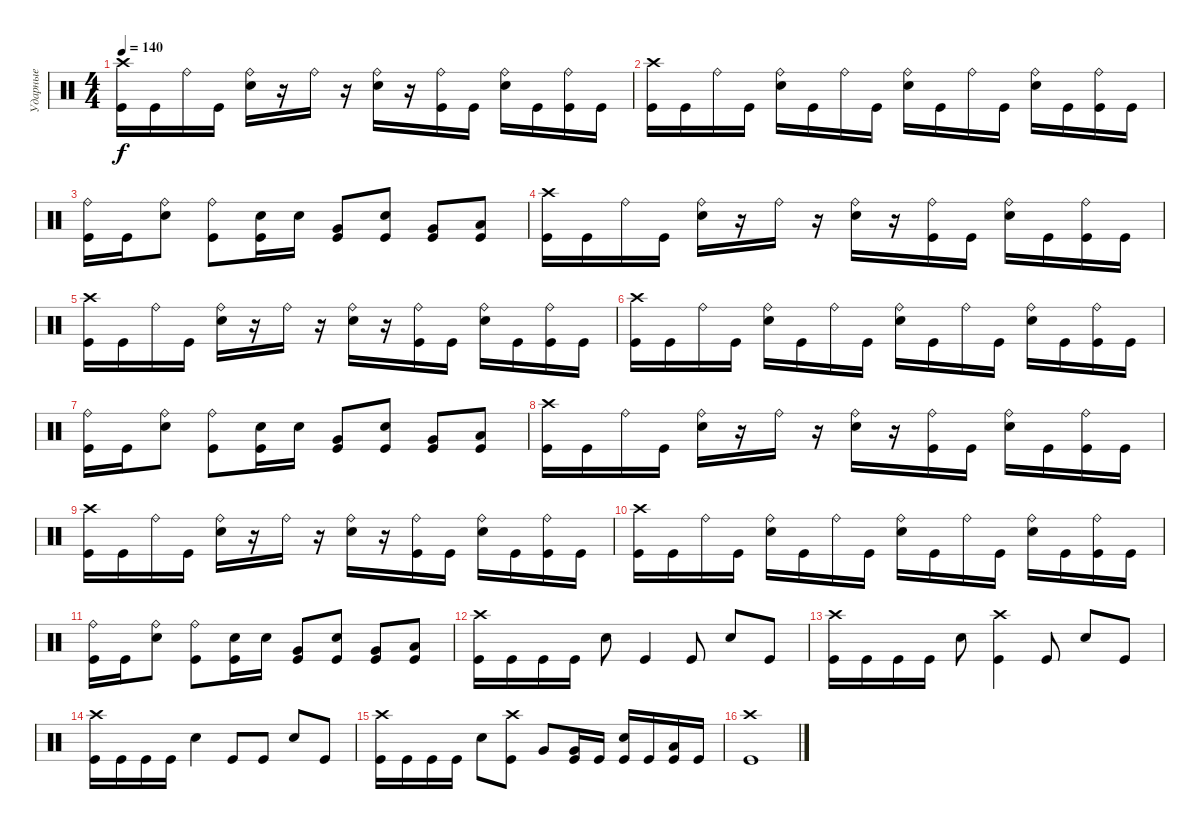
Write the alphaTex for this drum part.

\track ("Ударные" "Ударные") {instrument percussion}
\staff {score}
\articulation defaults
\ts (4 4)
\tempo 140
\clef neutral
\ks c
("Crash high (hit)" "Kick (hit)").16{dy f} "Kick (hit)".16 "Ride (bell)".16 "Kick (hit)".16 ("Ride (bell)" "Electric Snare (hit)").16 r.16 "Ride (bell)".16 r.16 ("Ride (bell)" "Electric Snare (hit)").16 r.16 ("Ride (bell)" "Kick (hit)").16 "Kick (hit)".16 ("Ride (bell)" "Electric Snare (hit)").16 "Kick (hit)".16 ("Ride (bell)" "Kick (hit)").16 "Kick (hit)".16 |
("Crash high (hit)" "Kick (hit)").16 "Kick (hit)".16 "Ride (bell)".16 "Kick (hit)".16 ("Ride (bell)" "Electric Snare (hit)").16 "Kick (hit)".16 "Ride (bell)".16 "Kick (hit)".16 ("Ride (bell)" "Electric Snare (hit)").16 "Kick (hit)".16 "Ride (bell)".16 "Kick (hit)".16 ("Ride (bell)" "Electric Snare (hit)").16 "Kick (hit)".16 ("Ride (bell)" "Kick (hit)").16 "Kick (hit)".16 |
("Ride (bell)" "Kick (hit)").16 "Kick (hit)".16 ("Ride (bell)" "Electric Snare (hit)").8 ("Ride (bell)" "Kick (hit)").8 ("Electric Snare (hit)" "Kick (hit)").16 "Electric Snare (hit)".16 ("Very Low Tom (hit)" "Kick (hit)").8 ("Electric Snare (hit)" "Kick (hit)").8 ("Very Low Tom (hit)" "Kick (hit)").8 ("Low Tom (hit)" "Kick (hit)").8 |
("Crash high (hit)" "Kick (hit)").16 "Kick (hit)".16 "Ride (bell)".16 "Kick (hit)".16 ("Ride (bell)" "Electric Snare (hit)").16 r.16 "Ride (bell)".16 r.16 ("Ride (bell)" "Electric Snare (hit)").16 r.16 ("Ride (bell)" "Kick (hit)").16 "Kick (hit)".16 ("Ride (bell)" "Electric Snare (hit)").16 "Kick (hit)".16 ("Ride (bell)" "Kick (hit)").16 "Kick (hit)".16 |
("Crash high (hit)" "Kick (hit)").16 "Kick (hit)".16 "Ride (bell)".16 "Kick (hit)".16 ("Ride (bell)" "Electric Snare (hit)").16 r.16 "Ride (bell)".16 r.16 ("Ride (bell)" "Electric Snare (hit)").16 r.16 ("Ride (bell)" "Kick (hit)").16 "Kick (hit)".16 ("Ride (bell)" "Electric Snare (hit)").16 "Kick (hit)".16 ("Ride (bell)" "Kick (hit)").16 "Kick (hit)".16 |
("Crash high (hit)" "Kick (hit)").16 "Kick (hit)".16 "Ride (bell)".16 "Kick (hit)".16 ("Ride (bell)" "Electric Snare (hit)").16 "Kick (hit)".16 "Ride (bell)".16 "Kick (hit)".16 ("Ride (bell)" "Electric Snare (hit)").16 "Kick (hit)".16 "Ride (bell)".16 "Kick (hit)".16 ("Ride (bell)" "Electric Snare (hit)").16 "Kick (hit)".16 ("Ride (bell)" "Kick (hit)").16 "Kick (hit)".16 |
("Ride (bell)" "Kick (hit)").16 "Kick (hit)".16 ("Ride (bell)" "Electric Snare (hit)").8 ("Ride (bell)" "Kick (hit)").8 ("Electric Snare (hit)" "Kick (hit)").16 "Electric Snare (hit)".16 ("Very Low Tom (hit)" "Kick (hit)").8 ("Electric Snare (hit)" "Kick (hit)").8 ("Very Low Tom (hit)" "Kick (hit)").8 ("Low Tom (hit)" "Kick (hit)").8 |
("Crash high (hit)" "Kick (hit)").16 "Kick (hit)".16 "Ride (bell)".16 "Kick (hit)".16 ("Ride (bell)" "Electric Snare (hit)").16 r.16 "Ride (bell)".16 r.16 ("Ride (bell)" "Electric Snare (hit)").16 r.16 ("Ride (bell)" "Kick (hit)").16 "Kick (hit)".16 ("Ride (bell)" "Electric Snare (hit)").16 "Kick (hit)".16 ("Ride (bell)" "Kick (hit)").16 "Kick (hit)".16 |
("Crash high (hit)" "Kick (hit)").16 "Kick (hit)".16 "Ride (bell)".16 "Kick (hit)".16 ("Ride (bell)" "Electric Snare (hit)").16 r.16 "Ride (bell)".16 r.16 ("Ride (bell)" "Electric Snare (hit)").16 r.16 ("Ride (bell)" "Kick (hit)").16 "Kick (hit)".16 ("Ride (bell)" "Electric Snare (hit)").16 "Kick (hit)".16 ("Ride (bell)" "Kick (hit)").16 "Kick (hit)".16 |
("Crash high (hit)" "Kick (hit)").16 "Kick (hit)".16 "Ride (bell)".16 "Kick (hit)".16 ("Ride (bell)" "Electric Snare (hit)").16 "Kick (hit)".16 "Ride (bell)".16 "Kick (hit)".16 ("Ride (bell)" "Electric Snare (hit)").16 "Kick (hit)".16 "Ride (bell)".16 "Kick (hit)".16 ("Ride (bell)" "Electric Snare (hit)").16 "Kick (hit)".16 ("Ride (bell)" "Kick (hit)").16 "Kick (hit)".16 |
("Ride (bell)" "Kick (hit)").16 "Kick (hit)".16 ("Ride (bell)" "Electric Snare (hit)").8 ("Ride (bell)" "Kick (hit)").8 ("Electric Snare (hit)" "Kick (hit)").16 "Electric Snare (hit)".16 ("Very Low Tom (hit)" "Kick (hit)").8 ("Electric Snare (hit)" "Kick (hit)").8 ("Very Low Tom (hit)" "Kick (hit)").8 ("Low Tom (hit)" "Kick (hit)").8 |
("Crash high (hit)" "Kick (hit)").16 "Kick (hit)".16 "Kick (hit)".16 "Kick (hit)".16 "Electric Snare (hit)".8 "Kick (hit)".4 "Kick (hit)".8 "Electric Snare (hit)".8 "Kick (hit)".8 |
("Crash high (hit)" "Kick (hit)").16 "Kick (hit)".16 "Kick (hit)".16 "Kick (hit)".16 "Electric Snare (hit)".8 ("Crash high (hit)" "Kick (hit)").4 "Kick (hit)".8 "Electric Snare (hit)".8 "Kick (hit)".8 |
("Crash high (hit)" "Kick (hit)").16 "Kick (hit)".16 "Kick (hit)".16 "Kick (hit)".16 "Electric Snare (hit)".4 "Kick (hit)".8 "Kick (hit)".8 "Electric Snare (hit)".8 "Kick (hit)".8 |
("Crash high (hit)" "Kick (hit)").16 "Kick (hit)".16 "Kick (hit)".16 "Kick (hit)".16 "Electric Snare (hit)".8 ("Crash high (hit)" "Kick (hit)").8 "Very Low Tom (hit)".8 ("Very Low Tom (hit)" "Kick (hit)").16 "Kick (hit)".16 ("Electric Snare (hit)" "Kick (hit)").16 "Kick (hit)".16 ("Low Tom (hit)" "Kick (hit)").16 "Kick (hit)".16 |
("Crash high (hit)" "Kick (hit)").1
